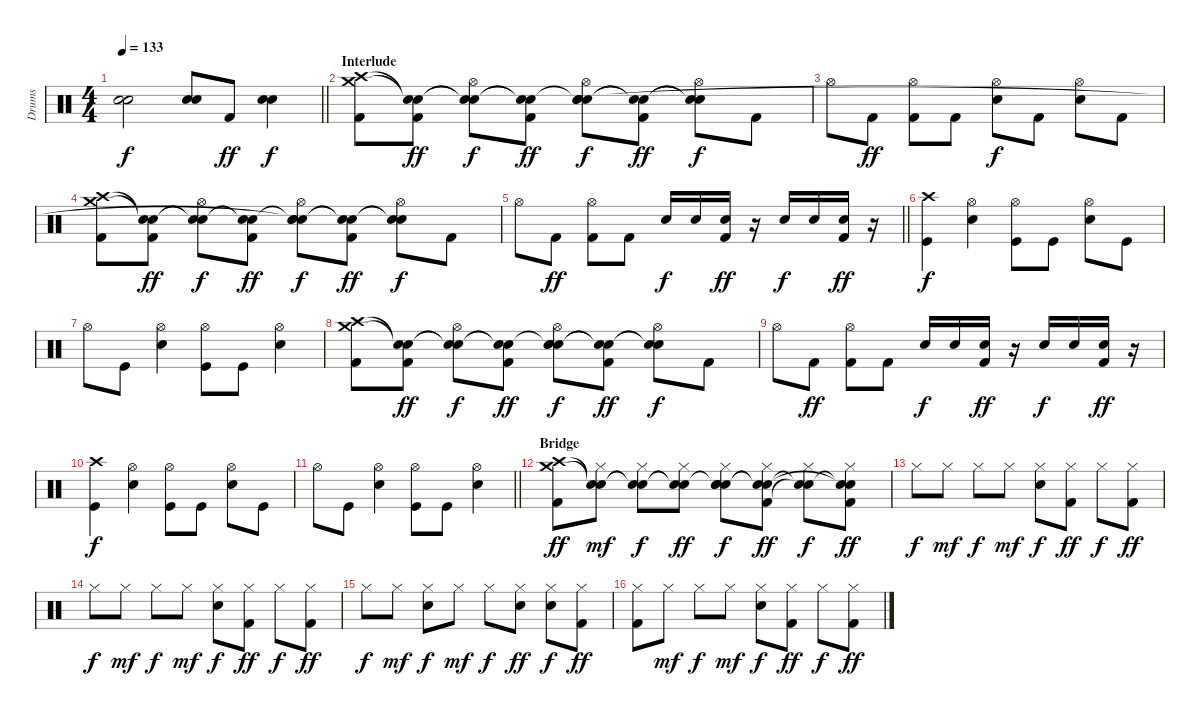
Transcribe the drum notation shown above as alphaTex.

\track ("Drums" "Drums") {instrument percussion}
\staff {score}
\articulation defaults
\ts (4 4)
\tempo 133
\clef neutral
\barLineRight lightlight
\ks c
("Snare (hit)"{t} "Snare (hit)"{t}).2{dy f} ("Snare (hit) 2" "Snare (hit) 2").8 "Kick (hit) 2".8{dy ff} ("Snare (hit) 2" "Snare (hit) 2").4{dy f} |
\section ("" "Interlude")
("Kick (hit) 2" "Crash high (hit)" "Crash medium (hit)").8 ("Kick (hit) 2" "Snare (hit)"{t} "Snare (hit)"{t}).8{dy ff} ("Hi-Hat (open)" "Snare (hit)"{t} "Snare (hit)"{t}).8{dy f} ("Kick (hit) 2" "Snare (hit)"{t} "Snare (hit)"{t}).8{dy ff} ("Hi-Hat (open)" "Snare (hit) 2" "Snare (hit)"{t} "Snare (hit)").8{dy f} ("Kick (hit) 2" "Snare (hit)"{t} "Snare (hit)"{t}).8{dy ff} ("Hi-Hat (open)" "Snare (hit)"{t} "Snare (hit)"{t}).8{dy f} "Kick (hit) 2".8 |
"Hi-Hat (open)".8 "Kick (hit) 2".8{dy ff} ("Hi-Hat (open)" "Kick (hit) 2").8 "Kick (hit) 2".8 ("Hi-Hat (open)" "Snare (hit) 2").8{dy f} "Kick (hit) 2".8 ("Hi-Hat (open)" "Snare (hit) 2").8 "Kick (hit) 2".8 |
("Kick (hit) 2" "Crash high (hit)" "Crash medium (hit)").8 ("Kick (hit) 2" "Snare (hit)"{t} "Snare (hit)"{t}).8{dy ff} ("Hi-Hat (open)" "Snare (hit)"{t} "Snare (hit)"{t}).8{dy f} ("Kick (hit) 2" "Snare (hit)"{t} "Snare (hit)"{t}).8{dy ff} ("Hi-Hat (open)" "Snare (hit) 2" "Snare (hit)"{t} "Snare (hit)"{t}).8{dy f} ("Kick (hit) 2" "Snare (hit)"{t} "Snare (hit)"{t}).8{dy ff} ("Hi-Hat (open)" "Snare (hit)"{t} "Snare (hit)"{t}).8{dy f} "Kick (hit) 2".8 |
\barLineRight lightlight "Hi-Hat (open)".8 "Kick (hit) 2".8{dy ff}
("Hi-Hat (open)" "Kick (hit) 2").8 "Kick (hit) 2".8 "Snare (hit) 2".16{dy f} "Snare (hit) 2".16 ("Snare (hit) 2" "Kick (hit) 2").16{dy ff} r.16 "Snare (hit) 2".16{dy f} "Snare (hit) 2".16 ("Snare (hit) 2" "Kick (hit) 2").16{dy ff} r.16 |
("Crash high (hit)" "Kick (hit)").4{dy f} ("Hi-Hat (open)" "Snare (hit) 2").4 ("Hi-Hat (open)" "Kick (hit)").8 "Kick (hit)".8 ("Hi-Hat (open)" "Snare (hit) 2").8 "Kick (hit)".8 |
"Hi-Hat (open)".8 "Kick (hit)".8 ("Snare (hit) 2" "Hi-Hat (open)").4 ("Kick (hit)" "Hi-Hat (open)").8 "Kick (hit)".8 ("Snare (hit) 2" "Hi-Hat (open)").4 |
("Kick (hit) 2" "Crash high (hit)" "Crash medium (hit)").8 ("Kick (hit) 2" "Snare (hit)"{t} "Snare (hit)"{t}).8{dy ff} ("Hi-Hat (open)" "Snare (hit)"{t} "Snare (hit)"{t}).8{dy f} ("Kick (hit) 2" "Snare (hit)"{t} "Snare (hit)"{t}).8{dy ff} ("Hi-Hat (open)" "Snare (hit) 2" "Snare (hit)"{t} "Snare (hit)").8{dy f} ("Kick (hit) 2" "Snare (hit)"{t} "Snare (hit)"{t}).8{dy ff} ("Hi-Hat (open)" "Snare (hit)"{t} "Snare (hit)"{t}).8{dy f} "Kick (hit) 2".8 |
"Hi-Hat (open)".8 "Kick (hit) 2".8{dy ff} ("Hi-Hat (open)" "Kick (hit) 2").8 "Kick (hit) 2".8 "Snare (hit) 2".16{dy f} "Snare (hit) 2".16 ("Snare (hit) 2" "Kick (hit) 2").16{dy ff} r.16 "Snare (hit) 2".16{dy f} "Snare (hit) 2".16 ("Snare (hit) 2" "Kick (hit) 2").16{dy ff} r.16 |
("Crash high (hit)" "Kick (hit)").4{dy f} ("Hi-Hat (open)" "Snare (hit) 2").4 ("Hi-Hat (open)" "Kick (hit)").8 "Kick (hit)".8 ("Hi-Hat (open)" "Snare (hit) 2").8 "Kick (hit)".8 |
\barLineRight lightlight "Hi-Hat (open)".8 "Kick (hit)".8
("Snare (hit) 2" "Hi-Hat (open)").4 ("Kick (hit)" "Hi-Hat (open)").8 "Kick (hit)".8 ("Snare (hit) 2" "Hi-Hat (open)").4 |
\section ("" "Bridge")
("Kick (hit) 2" "Crash medium (hit)" "Crash high (hit)").8{dy ff} ("Hi-Hat (closed)" "Snare (hit)"{t} "Snare (hit)"{t}).8{dy mf} ("Hi-Hat (closed)" "Snare (hit)"{t} "Snare (hit)"{t}).8{dy f} ("Hi-Hat (closed)" "Snare (hit)"{t} "Snare (hit)"{t}).8{dy ff} ("Hi-Hat (closed)" "Snare (hit) 2" "Snare (hit)"{t} "Snare (hit)").8{dy f} ("Hi-Hat (closed)" "Kick (hit) 2" "Snare (hit)"{t} "Snare (hit)"{t}).8{dy ff} ("Hi-Hat (closed)" "Snare (hit)"{t} "Snare (hit)"{t}).8{dy f} ("Hi-Hat (closed)" "Kick (hit) 2" "Snare (hit)"{t} "Snare (hit)"{t}).8{dy ff} |
"Hi-Hat (closed)".8{dy f} "Hi-Hat (closed)".8{dy mf} "Hi-Hat (closed)".8{dy f} "Hi-Hat (closed)".8{dy mf} ("Hi-Hat (closed)" "Snare (hit) 2").8{dy f} ("Hi-Hat (closed)" "Kick (hit) 2").8{dy ff} "Hi-Hat (closed)".8{dy f} ("Hi-Hat (closed)" "Kick (hit) 2").8{dy ff} |
"Hi-Hat (closed)".8{dy f} "Hi-Hat (closed)".8{dy mf} "Hi-Hat (closed)".8{dy f} "Hi-Hat (closed)".8{dy mf} ("Hi-Hat (closed)" "Snare (hit) 2").8{dy f} ("Hi-Hat (closed)" "Kick (hit) 2").8{dy ff} "Hi-Hat (closed)".8{dy f} ("Hi-Hat (closed)" "Kick (hit) 2").8{dy ff} |
"Hi-Hat (closed)".8{dy f} "Hi-Hat (closed)".8{dy mf} ("Hi-Hat (closed)" "Snare (hit) 2").8{dy f} "Hi-Hat (closed)".8{dy mf} "Hi-Hat (closed)".8{dy f} ("Hi-Hat (closed)" "Snare (hit) 2").8{dy ff} ("Hi-Hat (closed)" "Snare (hit) 2").8{dy f} ("Hi-Hat (closed)" "Kick (hit) 2").8{dy ff} |
("Hi-Hat (closed)" "Kick (hit) 2").8 "Hi-Hat (closed)".8{dy mf} "Hi-Hat (closed)".8{dy f} "Hi-Hat (closed)".8{dy mf} ("Hi-Hat (closed)" "Snare (hit) 2").8{dy f} ("Hi-Hat (closed)" "Kick (hit) 2").8{dy ff} "Hi-Hat (closed)".8{dy f} ("Hi-Hat (closed)" "Kick (hit) 2").8{dy ff}
